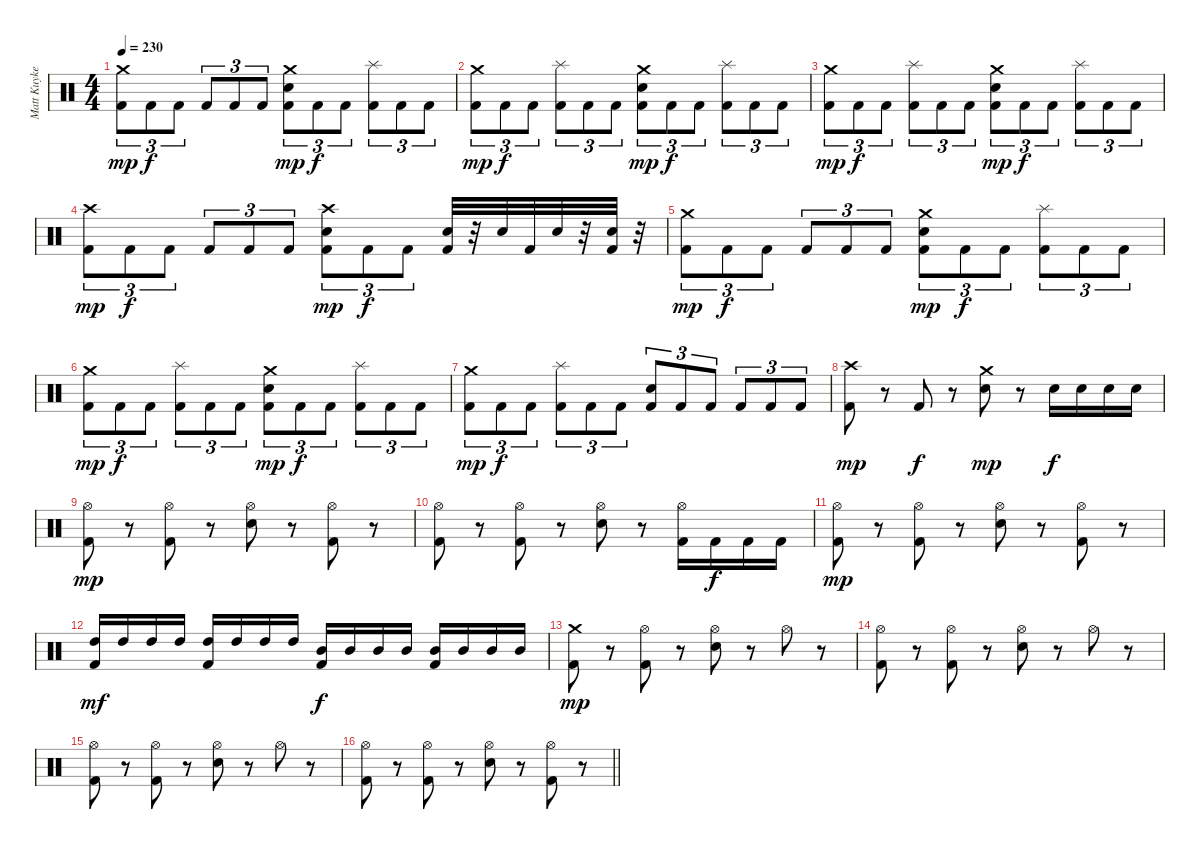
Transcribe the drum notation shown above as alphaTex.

\track ("Matt Kuykendall" "Matt Kuyke") {instrument percussion}
\staff {score}
\articulation defaults
\ts (4 4)
\tempo 230
\clef neutral
\ks c
("Crash medium (hit)" "Kick (hit) 2").8{tu (3 2) dy mp} "Kick (hit) 2".8{tu (3 2) dy f} "Kick (hit) 2".8{tu (3 2)} "Kick (hit) 2".8{tu (3 2)} "Kick (hit) 2".8{tu (3 2)} "Kick (hit) 2".8{tu (3 2)} ("Crash medium (hit)" "Electric Snare (hit)" "Kick (hit) 2").8{tu (3 2) dy mp} "Kick (hit) 2".8{tu (3 2) dy f} "Kick (hit) 2".8{tu (3 2)} ("Splash (hit)" "Kick (hit) 2").8{tu (3 2)} "Kick (hit) 2".8{tu (3 2)} "Kick (hit) 2".8{tu (3 2)} |
("Crash medium (hit)" "Kick (hit) 2").8{tu (3 2) dy mp} "Kick (hit) 2".8{tu (3 2) dy f} "Kick (hit) 2".8{tu (3 2)} ("Splash (hit)" "Kick (hit) 2").8{tu (3 2)} "Kick (hit) 2".8{tu (3 2)} "Kick (hit) 2".8{tu (3 2)} ("Crash medium (hit)" "Electric Snare (hit)" "Kick (hit) 2").8{tu (3 2) dy mp} "Kick (hit) 2".8{tu (3 2) dy f} "Kick (hit) 2".8{tu (3 2)} ("Splash (hit)" "Kick (hit) 2").8{tu (3 2)} "Kick (hit) 2".8{tu (3 2)} "Kick (hit) 2".8{tu (3 2)} |
("Crash medium (hit)" "Kick (hit) 2").8{tu (3 2) dy mp} "Kick (hit) 2".8{tu (3 2) dy f} "Kick (hit) 2".8{tu (3 2)} ("Splash (hit)" "Kick (hit) 2").8{tu (3 2)} "Kick (hit) 2".8{tu (3 2)} "Kick (hit) 2".8{tu (3 2)} ("Crash medium (hit)" "Electric Snare (hit)" "Kick (hit) 2").8{tu (3 2) dy mp} "Kick (hit) 2".8{tu (3 2) dy f} "Kick (hit) 2".8{tu (3 2)} ("Splash (hit)" "Kick (hit) 2").8{tu (3 2)} "Kick (hit) 2".8{tu (3 2)} "Kick (hit) 2".8{tu (3 2)} |
("Crash high (hit)" "Kick (hit) 2").8{tu (3 2) dy mp} "Kick (hit) 2".8{tu (3 2) dy f} "Kick (hit) 2".8{tu (3 2)} "Kick (hit) 2".8{tu (3 2)} "Kick (hit) 2".8{tu (3 2)} "Kick (hit) 2".8{tu (3 2)} ("Crash high (hit)" "Electric Snare (hit)" "Kick (hit) 2").8{tu (3 2) dy mp} "Kick (hit) 2".8{tu (3 2) dy f} "Kick (hit) 2".8{tu (3 2)} ("Electric Snare (hit)" "Kick (hit) 2").32 r.32 "Electric Snare (hit)".32 "Kick (hit) 2".32 "Electric Snare (hit)".32 r.32 ("Electric Snare (hit)" "Kick (hit) 2").32 r.32 |
("Crash medium (hit)" "Kick (hit) 2").8{tu (3 2) dy mp} "Kick (hit) 2".8{tu (3 2) dy f} "Kick (hit) 2".8{tu (3 2)} "Kick (hit) 2".8{tu (3 2)} "Kick (hit) 2".8{tu (3 2)} "Kick (hit) 2".8{tu (3 2)} ("Crash medium (hit)" "Electric Snare (hit)" "Kick (hit) 2").8{tu (3 2) dy mp} "Kick (hit) 2".8{tu (3 2) dy f} "Kick (hit) 2".8{tu (3 2)} ("Splash (hit)" "Kick (hit) 2").8{tu (3 2)} "Kick (hit) 2".8{tu (3 2)} "Kick (hit) 2".8{tu (3 2)} |
("Crash medium (hit)" "Kick (hit) 2").8{tu (3 2) dy mp} "Kick (hit) 2".8{tu (3 2) dy f} "Kick (hit) 2".8{tu (3 2)} ("Splash (hit)" "Kick (hit) 2").8{tu (3 2)} "Kick (hit) 2".8{tu (3 2)} "Kick (hit) 2".8{tu (3 2)} ("Crash medium (hit)" "Electric Snare (hit)" "Kick (hit) 2").8{tu (3 2) dy mp} "Kick (hit) 2".8{tu (3 2) dy f} "Kick (hit) 2".8{tu (3 2)} ("Splash (hit)" "Kick (hit) 2").8{tu (3 2)} "Kick (hit) 2".8{tu (3 2)} "Kick (hit) 2".8{tu (3 2)} |
("Crash medium (hit)" "Kick (hit) 2").8{tu (3 2) dy mp} "Kick (hit) 2".8{tu (3 2) dy f} "Kick (hit) 2".8{tu (3 2)} ("Splash (hit)" "Kick (hit) 2").8{tu (3 2)} "Kick (hit) 2".8{tu (3 2)} "Kick (hit) 2".8{tu (3 2)} ("Electric Snare (hit)" "Kick (hit) 2").8{tu (3 2)} "Kick (hit) 2".8{tu (3 2)} "Kick (hit) 2".8{tu (3 2)} "Kick (hit) 2".8{tu (3 2)} "Kick (hit) 2".8{tu (3 2)} "Kick (hit) 2".8{tu (3 2)} |
("Crash high (hit)" "Kick (hit) 2").8{dy mp} r.8 "Kick (hit) 2".8{dy f} r.8 ("Crash medium (hit)" "Electric Snare (hit)").8{dy mp} r.8 "Electric Snare (hit)".16{dy f} "Electric Snare (hit)".16 "Electric Snare (hit)".16 "Electric Snare (hit)".16 |
("Hi-Hat (open)" "Kick (hit) 2").8{dy mp} r.8 ("Hi-Hat (open)" "Kick (hit) 2").8 r.8 ("Hi-Hat (open)" "Electric Snare (hit)").8 r.8 ("Hi-Hat (open)" "Kick (hit) 2").8 r.8 |
("Hi-Hat (open)" "Kick (hit) 2").8 r.8 ("Hi-Hat (open)" "Kick (hit) 2").8 r.8 ("Hi-Hat (open)" "Electric Snare (hit)").8 r.8 ("Hi-Hat (open)" "Kick (hit) 2").16 "Kick (hit) 2".16{dy f} "Kick (hit) 2".16 "Kick (hit) 2".16 |
("Hi-Hat (open)" "Kick (hit) 2").8{dy mp} r.8 ("Hi-Hat (open)" "Kick (hit) 2").8 r.8 ("Hi-Hat (open)" "Electric Snare (hit)").8 r.8 ("Hi-Hat (open)" "Kick (hit) 2").8 r.8 |
("High Tom (hit)" "Kick (hit) 2").16{dy mf} "High Tom (hit)".16 "High Tom (hit)".16 "High Tom (hit)".16 ("High Tom (hit)" "Kick (hit) 2").16 "High Tom (hit)".16 "High Tom (hit)".16 "High Tom (hit)".16 ("Mid Tom (hit)" "Kick (hit) 2").16{dy f} "Mid Tom (hit)".16 "Mid Tom (hit)".16 "Mid Tom (hit)".16 ("Mid Tom (hit)" "Kick (hit) 2").16 "Mid Tom (hit)".16 "Mid Tom (hit)".16 "Mid Tom (hit)".16 |
("Crash medium (hit)" "Kick (hit) 2").8{dy mp} r.8 ("Hi-Hat (open)" "Kick (hit) 2").8 r.8 ("Hi-Hat (open)" "Electric Snare (hit)").8 r.8 "Hi-Hat (open)".8 r.8 |
("Hi-Hat (open)" "Kick (hit) 2").8 r.8 ("Hi-Hat (open)" "Kick (hit) 2").8 r.8 ("Hi-Hat (open)" "Electric Snare (hit)").8 r.8 "Hi-Hat (open)".8 r.8 |
("Hi-Hat (open)" "Kick (hit) 2").8 r.8 ("Hi-Hat (open)" "Kick (hit) 2").8 r.8 ("Hi-Hat (open)" "Electric Snare (hit)").8 r.8 "Hi-Hat (open)".8 r.8 |
\barLineRight lightlight
("Hi-Hat (open)" "Kick (hit) 2").8 r.8 ("Hi-Hat (open)" "Kick (hit) 2").8 r.8 ("Hi-Hat (open)" "Electric Snare (hit)").8 r.8 ("Hi-Hat (open)" "Kick (hit) 2").8 r.8
